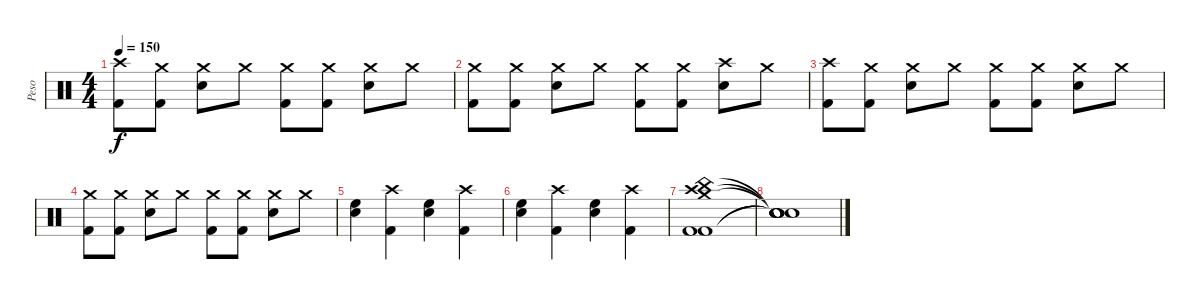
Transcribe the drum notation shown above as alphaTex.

\track ("Peso" "Peso") {instrument percussion}
\staff {score}
\articulation defaults
\ts (4 4)
\tempo 150
\clef neutral
\ks c
("Crash high (hit)" "Kick (hit) 2").8{dy f} ("Crash medium (hit)" "Kick (hit) 2").8 ("Crash medium (hit)" "Snare (hit) 2").8 "Crash medium (hit)".8 ("Crash medium (hit)" "Kick (hit) 2").8 ("Crash medium (hit)" "Kick (hit) 2").8 ("Crash medium (hit)" "Snare (hit) 2").8 "Crash medium (hit)".8 |
("Crash medium (hit)" "Kick (hit) 2").8 ("Crash medium (hit)" "Kick (hit) 2").8 ("Crash medium (hit)" "Snare (hit) 2").8 "Crash medium (hit)".8 ("Crash medium (hit)" "Kick (hit) 2").8 ("Crash medium (hit)" "Kick (hit) 2").8 ("Crash high (hit)" "Snare (hit) 2").8 "Crash medium (hit)".8 |
("Crash high (hit)" "Kick (hit) 2").8 ("Crash medium (hit)" "Kick (hit) 2").8 ("Crash medium (hit)" "Snare (hit) 2").8 "Crash medium (hit)".8 ("Crash medium (hit)" "Kick (hit) 2").8 ("Crash medium (hit)" "Kick (hit) 2").8 ("Crash medium (hit)" "Snare (hit) 2").8 "Crash medium (hit)".8 |
("Crash medium (hit)" "Kick (hit) 2").8 ("Crash medium (hit)" "Kick (hit) 2").8 ("Crash medium (hit)" "Snare (hit) 2").8 "Crash medium (hit)".8 ("Crash medium (hit)" "Kick (hit) 2").8 ("Crash medium (hit)" "Kick (hit) 2").8 ("Crash medium (hit)" "Snare (hit) 2").8 "Crash medium (hit)".8 |
("High Floor Tom (hit)" "Snare (hit) 2").4 ("Crash high (hit)" "Kick (hit) 2").4 ("High Floor Tom (hit)" "Snare (hit) 2").4 ("Crash high (hit)" "Kick (hit) 2").4 |
("High Floor Tom (hit)" "Snare (hit) 2").4 ("Crash high (hit)" "Kick (hit) 2").4 ("High Floor Tom (hit)" "Snare (hit) 2").4 ("Crash high (hit)" "Kick (hit) 2").4 |
("Crash high (hit)" "Crash medium (hit)" "China (hit)" "Kick (hit) 2" "Kick (hit) 2").1 |
("Snare (hit)"{t} "Snare (hit)"{t} "Snare (hit)"{t} "Snare (hit)"{t} "Snare (hit)"{t}).1
